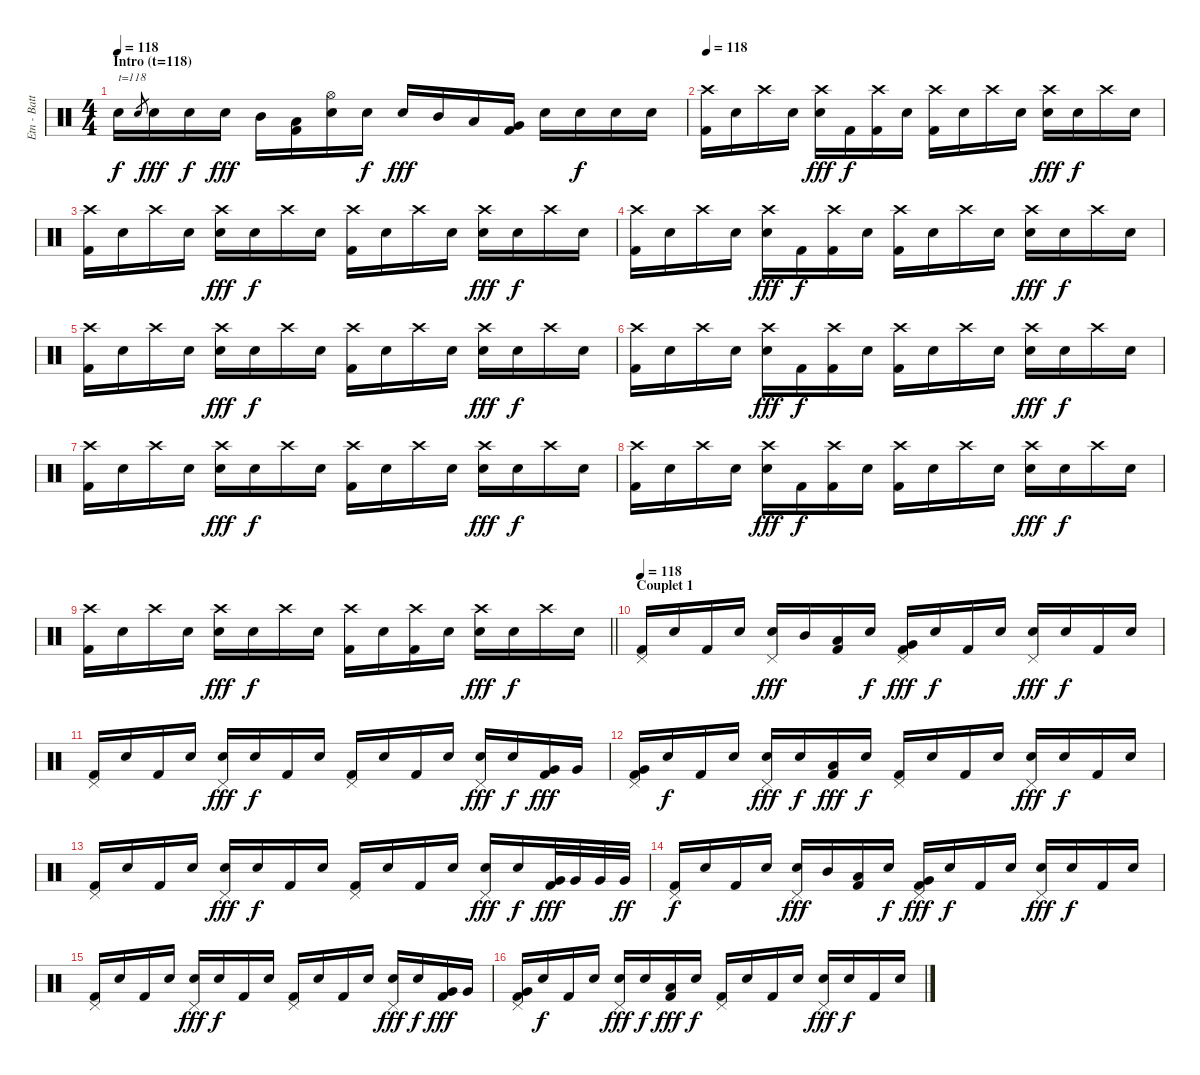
\track ("Etn - Batterie" "Etn - Batt") {instrument percussion}
\staff {score}
\articulation defaults
\ts (4 4)
\section ("" "Intro (t=118)")
\tempo 118
\clef neutral
\ks c "Snare (hit)".16{txt "t=118" dy f volume 16 balance 8} "Electric Snare (hit)".8{gr} "Electric Snare (hit)".16{dy fff} "Snare (hit)".16{dy f} "Electric Snare (hit)".16{dy fff} "Mid Tom (hit)".16
("Low Tom (hit)" "Kick (hit) 2").16 ("Hi-Hat (open)" "Electric Snare (hit)").16 "Snare (hit)".16{dy f} "Electric Snare (hit)".16{dy fff} "Mid Tom (hit)".16 "Low Tom (hit)".16 ("Very Low Tom (hit)" "Kick (hit) 2").16 "Electric Snare (hit)".16 "Snare (hit)".16{dy f} "Snare (hit)".16 "Snare (hit)".16 |
\tempo 118
("Crash high (hit)" "Kick (hit) 2").16{volume 16 balance 8} "Snare (hit)".16 "Crash high (hit)".16 "Snare (hit)".16 ("Crash high (hit)" "Electric Snare (hit)").16{dy fff} "Kick (hit) 2".16{dy f} ("Crash high (hit)" "Kick (hit) 2").16 "Snare (hit)".16 ("Crash high (hit)" "Kick (hit) 2").16 "Snare (hit)".16 "Crash high (hit)".16 "Snare (hit)".16 ("Crash high (hit)" "Electric Snare (hit)").16{dy fff} "Snare (hit)".16{dy f} "Crash high (hit)".16 "Snare (hit)".16 |
("Crash high (hit)" "Kick (hit) 2").16 "Snare (hit)".16 "Crash high (hit)".16 "Snare (hit)".16 ("Crash high (hit)" "Electric Snare (hit)").16{dy fff} "Snare (hit)".16{dy f} "Crash high (hit)".16 "Snare (hit)".16 ("Crash high (hit)" "Kick (hit) 2").16 "Snare (hit)".16 "Crash high (hit)".16 "Snare (hit)".16 ("Crash high (hit)" "Electric Snare (hit)").16{dy fff} "Snare (hit)".16{dy f} "Crash high (hit)".16 "Snare (hit)".16 |
("Crash high (hit)" "Kick (hit) 2").16 "Snare (hit)".16 "Crash high (hit)".16 "Snare (hit)".16 ("Crash high (hit)" "Electric Snare (hit)").16{dy fff} "Kick (hit) 2".16{dy f} ("Crash high (hit)" "Kick (hit) 2").16 "Snare (hit)".16 ("Crash high (hit)" "Kick (hit) 2").16 "Snare (hit)".16 "Crash high (hit)".16 "Snare (hit)".16 ("Crash high (hit)" "Electric Snare (hit)").16{dy fff} "Snare (hit)".16{dy f} "Crash high (hit)".16 "Snare (hit)".16 |
("Crash high (hit)" "Kick (hit) 2").16 "Snare (hit)".16 "Crash high (hit)".16 "Snare (hit)".16 ("Crash high (hit)" "Electric Snare (hit)").16{dy fff} "Snare (hit)".16{dy f} "Crash high (hit)".16 "Snare (hit)".16 ("Crash high (hit)" "Kick (hit) 2").16 "Snare (hit)".16 "Crash high (hit)".16 "Snare (hit)".16 ("Crash high (hit)" "Electric Snare (hit)").16{dy fff} "Snare (hit)".16{dy f} "Crash high (hit)".16 "Snare (hit)".16 |
("Crash high (hit)" "Kick (hit) 2").16 "Snare (hit)".16 "Crash high (hit)".16 "Snare (hit)".16 ("Crash high (hit)" "Electric Snare (hit)").16{dy fff} "Kick (hit) 2".16{dy f} ("Crash high (hit)" "Kick (hit) 2").16 "Snare (hit)".16 ("Crash high (hit)" "Kick (hit) 2").16 "Snare (hit)".16 "Crash high (hit)".16 "Snare (hit)".16 ("Crash high (hit)" "Electric Snare (hit)").16{dy fff} "Snare (hit)".16{dy f} "Crash high (hit)".16 "Snare (hit)".16 |
("Crash high (hit)" "Kick (hit) 2").16 "Snare (hit)".16 "Crash high (hit)".16 "Snare (hit)".16 ("Crash high (hit)" "Electric Snare (hit)").16{dy fff} "Snare (hit)".16{dy f} "Crash high (hit)".16 "Snare (hit)".16 ("Crash high (hit)" "Kick (hit) 2").16 "Snare (hit)".16 "Crash high (hit)".16 "Snare (hit)".16 ("Crash high (hit)" "Electric Snare (hit)").16{dy fff} "Snare (hit)".16{dy f} "Crash high (hit)".16 "Snare (hit)".16 |
("Crash high (hit)" "Kick (hit) 2").16 "Snare (hit)".16 "Crash high (hit)".16 "Snare (hit)".16 ("Crash high (hit)" "Electric Snare (hit)").16{dy fff} "Kick (hit) 2".16{dy f} ("Crash high (hit)" "Kick (hit) 2").16 "Snare (hit)".16 ("Crash high (hit)" "Kick (hit) 2").16 "Snare (hit)".16 "Crash high (hit)".16 "Snare (hit)".16 ("Crash high (hit)" "Electric Snare (hit)").16{dy fff} "Snare (hit)".16{dy f} "Crash high (hit)".16 "Snare (hit)".16 |
\barLineRight lightlight
("Crash high (hit)" "Kick (hit) 2").16 "Snare (hit)".16 "Crash high (hit)".16 "Snare (hit)".16 ("Crash high (hit)" "Electric Snare (hit)").16{dy fff} "Snare (hit)".16{dy f} "Crash high (hit)".16 "Snare (hit)".16 ("Crash high (hit)" "Kick (hit) 2").16 "Snare (hit)".16 ("Crash high (hit)" "Kick (hit) 2").16 "Snare (hit)".16 ("Crash high (hit)" "Electric Snare (hit)").16{dy fff} "Snare (hit)".16{dy f} "Crash high (hit)".16 "Snare (hit)".16 |
\section ("" "Couplet 1")
\tempo 118
("Pedal Hi-Hat (hit)" "Kick (hit) 2").16{volume 16 balance 8} "Snare (hit)".16 "Kick (hit) 2".16 "Snare (hit)".16 ("Pedal Hi-Hat (hit)" "Electric Snare (hit)").16{dy fff} "Mid Tom (hit)".16 ("Low Tom (hit)" "Kick (hit) 2").16 "Snare (hit)".16{dy f} ("Pedal Hi-Hat (hit)" "Very Low Tom (hit)" "Kick (hit) 2").16{dy fff} "Snare (hit)".16{dy f} "Kick (hit) 2".16 "Snare (hit)".16 ("Pedal Hi-Hat (hit)" "Electric Snare (hit)").16{dy fff} "Snare (hit)".16{dy f} "Kick (hit) 2".16 "Snare (hit)".16 |
("Pedal Hi-Hat (hit)" "Kick (hit) 2").16 "Snare (hit)".16 "Kick (hit) 2".16 "Snare (hit)".16 ("Pedal Hi-Hat (hit)" "Electric Snare (hit)").16{dy fff} "Snare (hit)".16{dy f} "Kick (hit) 2".16 "Snare (hit)".16 ("Pedal Hi-Hat (hit)" "Kick (hit) 2").16 "Snare (hit)".16 "Kick (hit) 2".16 "Snare (hit)".16 ("Pedal Hi-Hat (hit)" "Electric Snare (hit)").16{dy fff} "Snare (hit)".16{dy f} ("Very Low Tom (hit)" "Kick (hit) 2").16{dy fff} "Very Low Tom (hit)".16 |
("Pedal Hi-Hat (hit)" "Very Low Tom (hit)" "Kick (hit) 2").16 "Snare (hit)".16{dy f} "Kick (hit) 2".16 "Snare (hit)".16 ("Pedal Hi-Hat (hit)" "Electric Snare (hit)").16{dy fff} "Snare (hit)".16{dy f} ("Low Tom (hit)" "Kick (hit) 2").16{dy fff} "Snare (hit)".16{dy f} ("Pedal Hi-Hat (hit)" "Kick (hit) 2").16 "Snare (hit)".16 "Kick (hit) 2".16 "Snare (hit)".16 ("Pedal Hi-Hat (hit)" "Electric Snare (hit)").16{dy fff} "Snare (hit)".16{dy f} "Kick (hit) 2".16 "Snare (hit)".16 |
("Pedal Hi-Hat (hit)" "Kick (hit) 2").16 "Snare (hit)".16 "Kick (hit) 2".16 "Snare (hit)".16 ("Pedal Hi-Hat (hit)" "Electric Snare (hit)").16{dy fff} "Snare (hit)".16{dy f} "Kick (hit) 2".16 "Snare (hit)".16 ("Pedal Hi-Hat (hit)" "Kick (hit) 2").16 "Snare (hit)".16 "Kick (hit) 2".16 "Snare (hit)".16 ("Pedal Hi-Hat (hit)" "Electric Snare (hit)").16{dy fff} "Snare (hit)".16{dy f} ("Very Low Tom (hit)" "Kick (hit) 2").32{dy fff} "Very Low Tom (hit)".32 "Very Low Tom (hit)".32 "Very Low Tom (hit)".32{dy ff} |
("Pedal Hi-Hat (hit)" "Kick (hit) 2").16{dy f} "Snare (hit)".16 "Kick (hit) 2".16 "Snare (hit)".16 ("Pedal Hi-Hat (hit)" "Electric Snare (hit)").16{dy fff} "Mid Tom (hit)".16 ("Low Tom (hit)" "Kick (hit) 2").16 "Snare (hit)".16{dy f} ("Pedal Hi-Hat (hit)" "Very Low Tom (hit)" "Kick (hit) 2").16{dy fff} "Snare (hit)".16{dy f} "Kick (hit) 2".16 "Snare (hit)".16 ("Pedal Hi-Hat (hit)" "Electric Snare (hit)").16{dy fff} "Snare (hit)".16{dy f} "Kick (hit) 2".16 "Snare (hit)".16 |
("Pedal Hi-Hat (hit)" "Kick (hit) 2").16 "Snare (hit)".16 "Kick (hit) 2".16 "Snare (hit)".16 ("Pedal Hi-Hat (hit)" "Electric Snare (hit)").16{dy fff} "Snare (hit)".16{dy f} "Kick (hit) 2".16 "Snare (hit)".16 ("Pedal Hi-Hat (hit)" "Kick (hit) 2").16 "Snare (hit)".16 "Kick (hit) 2".16 "Snare (hit)".16 ("Pedal Hi-Hat (hit)" "Electric Snare (hit)").16{dy fff} "Snare (hit)".16{dy f} ("Very Low Tom (hit)" "Kick (hit) 2").16{dy fff} "Very Low Tom (hit)".16 |
("Pedal Hi-Hat (hit)" "Very Low Tom (hit)" "Kick (hit) 2").16 "Snare (hit)".16{dy f} "Kick (hit) 2".16 "Snare (hit)".16 ("Pedal Hi-Hat (hit)" "Electric Snare (hit)").16{dy fff} "Snare (hit)".16{dy f} ("Low Tom (hit)" "Kick (hit) 2").16{dy fff} "Snare (hit)".16{dy f} ("Pedal Hi-Hat (hit)" "Kick (hit) 2").16 "Snare (hit)".16 "Kick (hit) 2".16 "Snare (hit)".16 ("Pedal Hi-Hat (hit)" "Electric Snare (hit)").16{dy fff} "Snare (hit)".16{dy f} "Kick (hit) 2".16 "Snare (hit)".16
